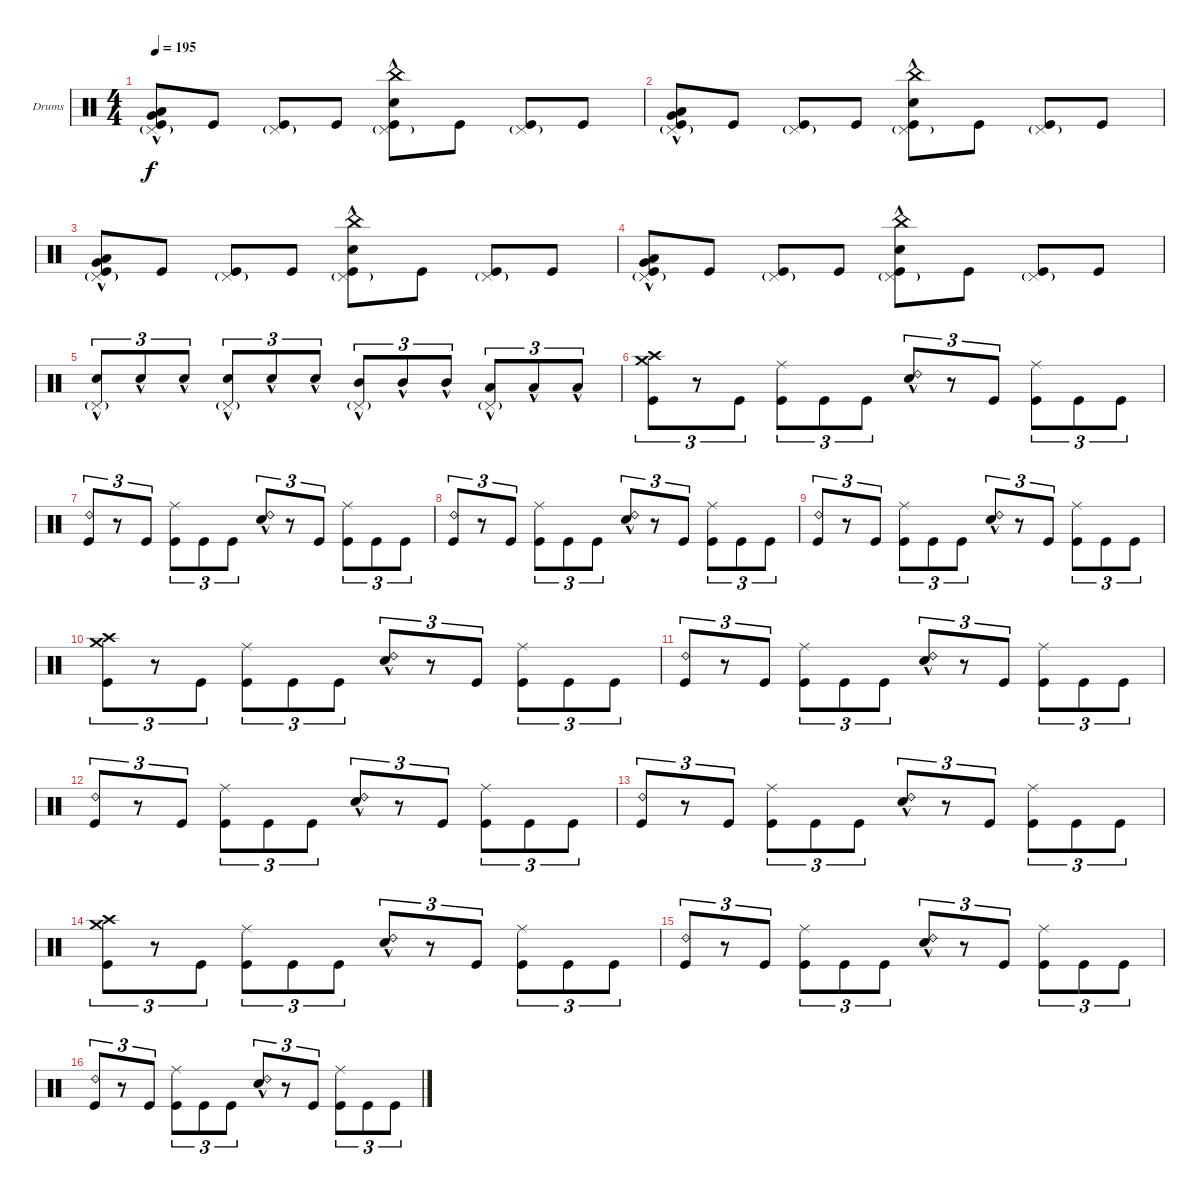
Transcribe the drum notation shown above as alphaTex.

\defaultSystemsLayout 4
\bracketExtendMode groupsimilarinstruments
\firstSystemTrackNameOrientation horizontal
\otherSystemsTrackNameOrientation horizontal
\track ("Drumkit" "Drums") {instrument percussion}
\staff {score}
\articulation defaults
\ts (4 4)
\tempo 195
\clef neutral
\ks c
("Kick (hit)" "Pedal Hi-Hat (hit)"{g} "Very Low Tom (hit)"{hac} "Low Tom (hit)"{hac}).8{dy f} "Kick (hit)".8 ("Kick (hit)" "Pedal Hi-Hat (hit)"{g}).8 "Kick (hit)".8 ("Kick (hit)" "Pedal Hi-Hat (hit)"{g} "Snare (hit) 2"{hac} "China (hit)"{hac}).8 "Kick (hit)".8 ("Kick (hit)" "Pedal Hi-Hat (hit)"{g}).8 "Kick (hit)".8 |
("Kick (hit)" "Very Low Tom (hit)"{hac} "Low Tom (hit)"{hac} "Pedal Hi-Hat (hit)"{g}).8 "Kick (hit)".8 ("Kick (hit)" "Pedal Hi-Hat (hit)"{g}).8 "Kick (hit)".8 ("Kick (hit)" "Snare (hit) 2"{hac} "China (hit)"{hac} "Pedal Hi-Hat (hit)"{g}).8 "Kick (hit)".8 ("Kick (hit)" "Pedal Hi-Hat (hit)"{g}).8 "Kick (hit)".8 |
("Kick (hit)" "Pedal Hi-Hat (hit)"{g} "Very Low Tom (hit)"{hac} "Low Tom (hit)"{hac}).8 "Kick (hit)".8 ("Kick (hit)" "Pedal Hi-Hat (hit)"{g}).8 "Kick (hit)".8 ("Kick (hit)" "Pedal Hi-Hat (hit)"{g} "Snare (hit) 2"{hac} "China (hit)"{hac}).8 "Kick (hit)".8 ("Kick (hit)" "Pedal Hi-Hat (hit)"{g}).8 "Kick (hit)".8 |
("Kick (hit)" "Very Low Tom (hit)"{hac} "Low Tom (hit)"{hac} "Pedal Hi-Hat (hit)"{g}).8 "Kick (hit)".8 ("Kick (hit)" "Pedal Hi-Hat (hit)"{g}).8 "Kick (hit)".8 ("Kick (hit)" "Snare (hit) 2"{hac} "China (hit)"{hac} "Pedal Hi-Hat (hit)"{g}).8 "Kick (hit)".8 ("Kick (hit)" "Pedal Hi-Hat (hit)"{g}).8 "Kick (hit)".8 |
("Pedal Hi-Hat (hit)"{g} "Snare (hit) 2"{hac}).8{tu (3 2)} "Snare (hit) 2"{hac}.8{tu (3 2)} "Snare (hit) 2"{hac}.8{tu (3 2)} ("Snare (hit) 2"{hac} "Pedal Hi-Hat (hit)"{g}).8{tu (3 2)} "Snare (hit) 2"{hac}.8{tu (3 2)} "Snare (hit) 2"{hac}.8{tu (3 2)} ("Mid Tom (hit)"{hac} "Pedal Hi-Hat (hit)"{g}).8{tu (3 2)} "Mid Tom (hit)"{hac}.8{tu (3 2)} "Mid Tom (hit)"{hac}.8{tu (3 2)} ("Low Tom (hit)"{hac} "Pedal Hi-Hat (hit)"{g}).8{tu (3 2)} "Low Tom (hit)"{hac}.8{tu (3 2)} "Low Tom (hit)"{hac}.8{tu (3 2)} |
("Kick (hit)" "Crash medium (hit)" "Crash high (hit)").8{tu (3 2)} r.8{tu (3 2)} "Kick (hit)".8{tu (3 2)} ("Kick (hit)" "Ride (middle)").8{tu (3 2)} "Kick (hit)".8{tu (3 2)} "Kick (hit)".8{tu (3 2)} ("Snare (hit) 2"{hac} "Ride (bell) 2").8{tu (3 2)} r.8{tu (3 2)} "Kick (hit)".8{tu (3 2)} ("Kick (hit)" "Ride (middle)").8{tu (3 2)} "Kick (hit)".8{tu (3 2)} "Kick (hit)".8{tu (3 2)} |
("Kick (hit)" "Ride (bell) 2").8{tu (3 2)} r.8{tu (3 2)} "Kick (hit)".8{tu (3 2)} ("Kick (hit)" "Ride (middle)").8{tu (3 2)} "Kick (hit)".8{tu (3 2)} "Kick (hit)".8{tu (3 2)} ("Snare (hit) 2"{hac} "Ride (bell) 2").8{tu (3 2)} r.8{tu (3 2)} "Kick (hit)".8{tu (3 2)} ("Kick (hit)" "Ride (middle)").8{tu (3 2)} "Kick (hit)".8{tu (3 2)} "Kick (hit)".8{tu (3 2)} |
("Kick (hit)" "Ride (bell) 2").8{tu (3 2)} r.8{tu (3 2)} "Kick (hit)".8{tu (3 2)} ("Kick (hit)" "Ride (middle)").8{tu (3 2)} "Kick (hit)".8{tu (3 2)} "Kick (hit)".8{tu (3 2)} ("Snare (hit) 2"{hac} "Ride (bell) 2").8{tu (3 2)} r.8{tu (3 2)} "Kick (hit)".8{tu (3 2)} ("Kick (hit)" "Ride (middle)").8{tu (3 2)} "Kick (hit)".8{tu (3 2)} "Kick (hit)".8{tu (3 2)} |
("Kick (hit)" "Ride (bell) 2").8{tu (3 2)} r.8{tu (3 2)} "Kick (hit)".8{tu (3 2)} ("Kick (hit)" "Ride (middle)").8{tu (3 2)} "Kick (hit)".8{tu (3 2)} "Kick (hit)".8{tu (3 2)} ("Snare (hit) 2"{hac} "Ride (bell) 2").8{tu (3 2)} r.8{tu (3 2)} "Kick (hit)".8{tu (3 2)} ("Kick (hit)" "Ride (middle)").8{tu (3 2)} "Kick (hit)".8{tu (3 2)} "Kick (hit)".8{tu (3 2)} |
("Kick (hit)" "Crash medium (hit)" "Crash high (hit)").8{tu (3 2)} r.8{tu (3 2)} "Kick (hit)".8{tu (3 2)} ("Kick (hit)" "Ride (middle)").8{tu (3 2)} "Kick (hit)".8{tu (3 2)} "Kick (hit)".8{tu (3 2)} ("Snare (hit) 2"{hac} "Ride (bell) 2").8{tu (3 2)} r.8{tu (3 2)} "Kick (hit)".8{tu (3 2)} ("Kick (hit)" "Ride (middle)").8{tu (3 2)} "Kick (hit)".8{tu (3 2)} "Kick (hit)".8{tu (3 2)} |
("Kick (hit)" "Ride (bell) 2").8{tu (3 2)} r.8{tu (3 2)} "Kick (hit)".8{tu (3 2)} ("Kick (hit)" "Ride (middle)").8{tu (3 2)} "Kick (hit)".8{tu (3 2)} "Kick (hit)".8{tu (3 2)} ("Snare (hit) 2"{hac} "Ride (bell) 2").8{tu (3 2)} r.8{tu (3 2)} "Kick (hit)".8{tu (3 2)} ("Kick (hit)" "Ride (middle)").8{tu (3 2)} "Kick (hit)".8{tu (3 2)} "Kick (hit)".8{tu (3 2)} |
("Kick (hit)" "Ride (bell) 2").8{tu (3 2)} r.8{tu (3 2)} "Kick (hit)".8{tu (3 2)} ("Kick (hit)" "Ride (middle)").8{tu (3 2)} "Kick (hit)".8{tu (3 2)} "Kick (hit)".8{tu (3 2)} ("Snare (hit) 2"{hac} "Ride (bell) 2").8{tu (3 2)} r.8{tu (3 2)} "Kick (hit)".8{tu (3 2)} ("Kick (hit)" "Ride (middle)").8{tu (3 2)} "Kick (hit)".8{tu (3 2)} "Kick (hit)".8{tu (3 2)} |
("Kick (hit)" "Ride (bell) 2").8{tu (3 2)} r.8{tu (3 2)} "Kick (hit)".8{tu (3 2)} ("Kick (hit)" "Ride (middle)").8{tu (3 2)} "Kick (hit)".8{tu (3 2)} "Kick (hit)".8{tu (3 2)} ("Snare (hit) 2"{hac} "Ride (bell) 2").8{tu (3 2)} r.8{tu (3 2)} "Kick (hit)".8{tu (3 2)} ("Kick (hit)" "Ride (middle)").8{tu (3 2)} "Kick (hit)".8{tu (3 2)} "Kick (hit)".8{tu (3 2)} |
("Kick (hit)" "Crash medium (hit)" "Crash high (hit)").8{tu (3 2)} r.8{tu (3 2)} "Kick (hit)".8{tu (3 2)} ("Kick (hit)" "Ride (middle)").8{tu (3 2)} "Kick (hit)".8{tu (3 2)} "Kick (hit)".8{tu (3 2)} ("Snare (hit) 2"{hac} "Ride (bell) 2").8{tu (3 2)} r.8{tu (3 2)} "Kick (hit)".8{tu (3 2)} ("Kick (hit)" "Ride (middle)").8{tu (3 2)} "Kick (hit)".8{tu (3 2)} "Kick (hit)".8{tu (3 2)} |
("Kick (hit)" "Ride (bell) 2").8{tu (3 2)} r.8{tu (3 2)} "Kick (hit)".8{tu (3 2)} ("Kick (hit)" "Ride (middle)").8{tu (3 2)} "Kick (hit)".8{tu (3 2)} "Kick (hit)".8{tu (3 2)} ("Snare (hit) 2"{hac} "Ride (bell) 2").8{tu (3 2)} r.8{tu (3 2)} "Kick (hit)".8{tu (3 2)} ("Kick (hit)" "Ride (middle)").8{tu (3 2)} "Kick (hit)".8{tu (3 2)} "Kick (hit)".8{tu (3 2)} |
("Kick (hit)" "Ride (bell) 2").8{tu (3 2)} r.8{tu (3 2)} "Kick (hit)".8{tu (3 2)} ("Kick (hit)" "Ride (middle)").8{tu (3 2)} "Kick (hit)".8{tu (3 2)} "Kick (hit)".8{tu (3 2)} ("Snare (hit) 2"{hac} "Ride (bell) 2").8{tu (3 2)} r.8{tu (3 2)} "Kick (hit)".8{tu (3 2)} ("Kick (hit)" "Ride (middle)").8{tu (3 2)} "Kick (hit)".8{tu (3 2)} "Kick (hit)".8{tu (3 2)}
